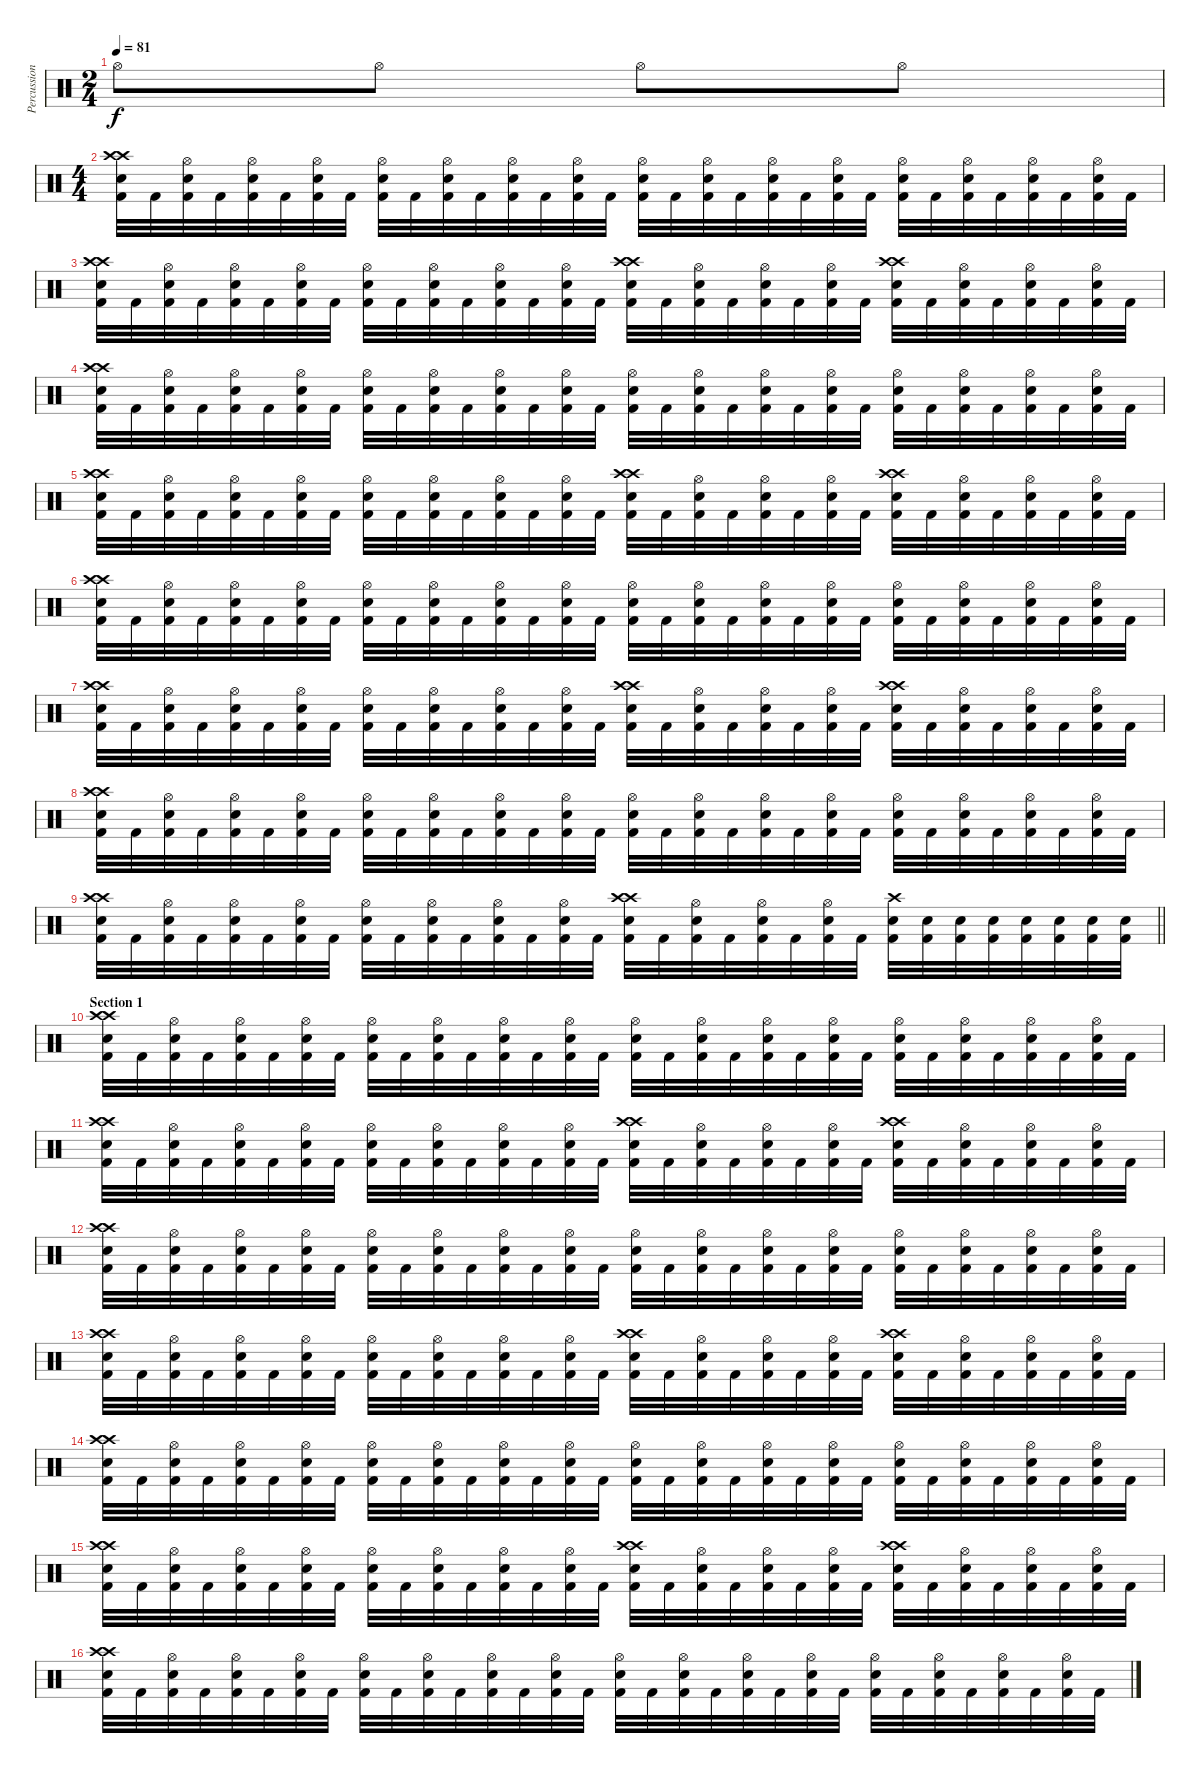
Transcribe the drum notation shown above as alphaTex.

\track ("Percussion" "Percussion") {instrument percussion}
\staff {score}
\articulation defaults
\ts (2 4)
\tempo 81
\clef neutral
\ks c "Hi-Hat (open)".8{dy f} "Hi-Hat (open)".8 "Hi-Hat (open)".8 "Hi-Hat (open)".8
|
\ts (4 4)
("Crash high (hit)" "Kick (hit) 2" "Snare (hit) 2" "Crash high (hit)").32 "Kick (hit) 2".32 ("Hi-Hat (open)" "Kick (hit) 2" "Snare (hit) 2").32 "Kick (hit) 2".32 ("Hi-Hat (open)" "Kick (hit) 2" "Snare (hit) 2").32 "Kick (hit) 2".32 ("Hi-Hat (open)" "Kick (hit) 2" "Snare (hit) 2").32 "Kick (hit) 2".32 ("Hi-Hat (open)" "Kick (hit) 2" "Snare (hit) 2").32 "Kick (hit) 2".32 ("Hi-Hat (open)" "Kick (hit) 2" "Snare (hit) 2").32 "Kick (hit) 2".32 ("Hi-Hat (open)" "Kick (hit) 2" "Snare (hit) 2").32 "Kick (hit) 2".32 ("Hi-Hat (open)" "Kick (hit) 2" "Snare (hit) 2").32 "Kick (hit) 2".32 ("Hi-Hat (open)" "Kick (hit) 2" "Snare (hit) 2").32 "Kick (hit) 2".32 ("Hi-Hat (open)" "Kick (hit) 2" "Snare (hit) 2").32 "Kick (hit) 2".32 ("Hi-Hat (open)" "Kick (hit) 2" "Snare (hit) 2").32 "Kick (hit) 2".32 ("Hi-Hat (open)" "Kick (hit) 2" "Snare (hit) 2").32 "Kick (hit) 2".32 ("Hi-Hat (open)" "Kick (hit) 2" "Snare (hit) 2").32 "Kick (hit) 2".32 ("Hi-Hat (open)" "Kick (hit) 2" "Snare (hit) 2").32 "Kick (hit) 2".32 ("Hi-Hat (open)" "Kick (hit) 2" "Snare (hit) 2").32 "Kick (hit) 2".32 ("Hi-Hat (open)" "Kick (hit) 2" "Snare (hit) 2").32 "Kick (hit) 2".32 |
("Crash high (hit)" "Kick (hit) 2" "Snare (hit) 2" "Crash high (hit)").32 "Kick (hit) 2".32 ("Hi-Hat (open)" "Kick (hit) 2" "Snare (hit) 2").32 "Kick (hit) 2".32 ("Hi-Hat (open)" "Kick (hit) 2" "Snare (hit) 2").32 "Kick (hit) 2".32 ("Hi-Hat (open)" "Kick (hit) 2" "Snare (hit) 2").32 "Kick (hit) 2".32 ("Hi-Hat (open)" "Kick (hit) 2" "Snare (hit) 2").32 "Kick (hit) 2".32 ("Hi-Hat (open)" "Kick (hit) 2" "Snare (hit) 2").32 "Kick (hit) 2".32 ("Hi-Hat (open)" "Kick (hit) 2" "Snare (hit) 2").32 "Kick (hit) 2".32 ("Hi-Hat (open)" "Kick (hit) 2" "Snare (hit) 2").32 "Kick (hit) 2".32 ("Crash high (hit)" "Kick (hit) 2" "Snare (hit) 2" "Crash high (hit)").32 "Kick (hit) 2".32 ("Hi-Hat (open)" "Kick (hit) 2" "Snare (hit) 2").32 "Kick (hit) 2".32 ("Hi-Hat (open)" "Kick (hit) 2" "Snare (hit) 2").32 "Kick (hit) 2".32 ("Hi-Hat (open)" "Kick (hit) 2" "Snare (hit) 2").32 "Kick (hit) 2".32 ("Crash high (hit)" "Kick (hit) 2" "Snare (hit) 2" "Crash high (hit)").32 "Kick (hit) 2".32 ("Hi-Hat (open)" "Kick (hit) 2" "Snare (hit) 2").32 "Kick (hit) 2".32 ("Hi-Hat (open)" "Kick (hit) 2" "Snare (hit) 2").32 "Kick (hit) 2".32 ("Hi-Hat (open)" "Kick (hit) 2" "Snare (hit) 2").32 "Kick (hit) 2".32 |
("Crash high (hit)" "Kick (hit) 2" "Snare (hit) 2" "Crash high (hit)").32 "Kick (hit) 2".32 ("Hi-Hat (open)" "Kick (hit) 2" "Snare (hit) 2").32 "Kick (hit) 2".32 ("Hi-Hat (open)" "Kick (hit) 2" "Snare (hit) 2").32 "Kick (hit) 2".32 ("Hi-Hat (open)" "Kick (hit) 2" "Snare (hit) 2").32 "Kick (hit) 2".32 ("Hi-Hat (open)" "Kick (hit) 2" "Snare (hit) 2").32 "Kick (hit) 2".32 ("Hi-Hat (open)" "Kick (hit) 2" "Snare (hit) 2").32 "Kick (hit) 2".32 ("Hi-Hat (open)" "Kick (hit) 2" "Snare (hit) 2").32 "Kick (hit) 2".32 ("Hi-Hat (open)" "Kick (hit) 2" "Snare (hit) 2").32 "Kick (hit) 2".32 ("Hi-Hat (open)" "Kick (hit) 2" "Snare (hit) 2").32 "Kick (hit) 2".32 ("Hi-Hat (open)" "Kick (hit) 2" "Snare (hit) 2").32 "Kick (hit) 2".32 ("Hi-Hat (open)" "Kick (hit) 2" "Snare (hit) 2").32 "Kick (hit) 2".32 ("Hi-Hat (open)" "Kick (hit) 2" "Snare (hit) 2").32 "Kick (hit) 2".32 ("Hi-Hat (open)" "Kick (hit) 2" "Snare (hit) 2").32 "Kick (hit) 2".32 ("Hi-Hat (open)" "Kick (hit) 2" "Snare (hit) 2").32 "Kick (hit) 2".32 ("Hi-Hat (open)" "Kick (hit) 2" "Snare (hit) 2").32 "Kick (hit) 2".32 ("Hi-Hat (open)" "Kick (hit) 2" "Snare (hit) 2").32 "Kick (hit) 2".32 |
("Crash high (hit)" "Kick (hit) 2" "Snare (hit) 2" "Crash high (hit)").32 "Kick (hit) 2".32 ("Hi-Hat (open)" "Kick (hit) 2" "Snare (hit) 2").32 "Kick (hit) 2".32 ("Hi-Hat (open)" "Kick (hit) 2" "Snare (hit) 2").32 "Kick (hit) 2".32 ("Hi-Hat (open)" "Kick (hit) 2" "Snare (hit) 2").32 "Kick (hit) 2".32 ("Hi-Hat (open)" "Kick (hit) 2" "Snare (hit) 2").32 "Kick (hit) 2".32 ("Hi-Hat (open)" "Kick (hit) 2" "Snare (hit) 2").32 "Kick (hit) 2".32 ("Hi-Hat (open)" "Kick (hit) 2" "Snare (hit) 2").32 "Kick (hit) 2".32 ("Hi-Hat (open)" "Kick (hit) 2" "Snare (hit) 2").32 "Kick (hit) 2".32 ("Crash high (hit)" "Kick (hit) 2" "Snare (hit) 2" "Crash high (hit)").32 "Kick (hit) 2".32 ("Hi-Hat (open)" "Kick (hit) 2" "Snare (hit) 2").32 "Kick (hit) 2".32 ("Hi-Hat (open)" "Kick (hit) 2" "Snare (hit) 2").32 "Kick (hit) 2".32 ("Hi-Hat (open)" "Kick (hit) 2" "Snare (hit) 2").32 "Kick (hit) 2".32 ("Crash high (hit)" "Kick (hit) 2" "Snare (hit) 2" "Crash high (hit)").32 "Kick (hit) 2".32 ("Hi-Hat (open)" "Kick (hit) 2" "Snare (hit) 2").32 "Kick (hit) 2".32 ("Hi-Hat (open)" "Kick (hit) 2" "Snare (hit) 2").32 "Kick (hit) 2".32 ("Hi-Hat (open)" "Kick (hit) 2" "Snare (hit) 2").32 "Kick (hit) 2".32 |
("Crash high (hit)" "Kick (hit) 2" "Snare (hit) 2" "Crash high (hit)").32 "Kick (hit) 2".32 ("Hi-Hat (open)" "Kick (hit) 2" "Snare (hit) 2").32 "Kick (hit) 2".32 ("Hi-Hat (open)" "Kick (hit) 2" "Snare (hit) 2").32 "Kick (hit) 2".32 ("Hi-Hat (open)" "Kick (hit) 2" "Snare (hit) 2").32 "Kick (hit) 2".32 ("Hi-Hat (open)" "Kick (hit) 2" "Snare (hit) 2").32 "Kick (hit) 2".32 ("Hi-Hat (open)" "Kick (hit) 2" "Snare (hit) 2").32 "Kick (hit) 2".32 ("Hi-Hat (open)" "Kick (hit) 2" "Snare (hit) 2").32 "Kick (hit) 2".32 ("Hi-Hat (open)" "Kick (hit) 2" "Snare (hit) 2").32 "Kick (hit) 2".32 ("Hi-Hat (open)" "Kick (hit) 2" "Snare (hit) 2").32 "Kick (hit) 2".32 ("Hi-Hat (open)" "Kick (hit) 2" "Snare (hit) 2").32 "Kick (hit) 2".32 ("Hi-Hat (open)" "Kick (hit) 2" "Snare (hit) 2").32 "Kick (hit) 2".32 ("Hi-Hat (open)" "Kick (hit) 2" "Snare (hit) 2").32 "Kick (hit) 2".32 ("Hi-Hat (open)" "Kick (hit) 2" "Snare (hit) 2").32 "Kick (hit) 2".32 ("Hi-Hat (open)" "Kick (hit) 2" "Snare (hit) 2").32 "Kick (hit) 2".32 ("Hi-Hat (open)" "Kick (hit) 2" "Snare (hit) 2").32 "Kick (hit) 2".32 ("Hi-Hat (open)" "Kick (hit) 2" "Snare (hit) 2").32 "Kick (hit) 2".32 |
("Crash high (hit)" "Kick (hit) 2" "Snare (hit) 2" "Crash high (hit)").32 "Kick (hit) 2".32 ("Hi-Hat (open)" "Kick (hit) 2" "Snare (hit) 2").32 "Kick (hit) 2".32 ("Hi-Hat (open)" "Kick (hit) 2" "Snare (hit) 2").32 "Kick (hit) 2".32 ("Hi-Hat (open)" "Kick (hit) 2" "Snare (hit) 2").32 "Kick (hit) 2".32 ("Hi-Hat (open)" "Kick (hit) 2" "Snare (hit) 2").32 "Kick (hit) 2".32 ("Hi-Hat (open)" "Kick (hit) 2" "Snare (hit) 2").32 "Kick (hit) 2".32 ("Hi-Hat (open)" "Kick (hit) 2" "Snare (hit) 2").32 "Kick (hit) 2".32 ("Hi-Hat (open)" "Kick (hit) 2" "Snare (hit) 2").32 "Kick (hit) 2".32 ("Crash high (hit)" "Kick (hit) 2" "Snare (hit) 2" "Crash high (hit)").32 "Kick (hit) 2".32 ("Hi-Hat (open)" "Kick (hit) 2" "Snare (hit) 2").32 "Kick (hit) 2".32 ("Hi-Hat (open)" "Kick (hit) 2" "Snare (hit) 2").32 "Kick (hit) 2".32 ("Hi-Hat (open)" "Kick (hit) 2" "Snare (hit) 2").32 "Kick (hit) 2".32 ("Crash high (hit)" "Kick (hit) 2" "Snare (hit) 2" "Crash high (hit)").32 "Kick (hit) 2".32 ("Hi-Hat (open)" "Kick (hit) 2" "Snare (hit) 2").32 "Kick (hit) 2".32 ("Hi-Hat (open)" "Kick (hit) 2" "Snare (hit) 2").32 "Kick (hit) 2".32 ("Hi-Hat (open)" "Kick (hit) 2" "Snare (hit) 2").32 "Kick (hit) 2".32 |
("Crash high (hit)" "Kick (hit) 2" "Snare (hit) 2" "Crash high (hit)").32 "Kick (hit) 2".32 ("Hi-Hat (open)" "Kick (hit) 2" "Snare (hit) 2").32 "Kick (hit) 2".32 ("Hi-Hat (open)" "Kick (hit) 2" "Snare (hit) 2").32 "Kick (hit) 2".32 ("Hi-Hat (open)" "Kick (hit) 2" "Snare (hit) 2").32 "Kick (hit) 2".32 ("Hi-Hat (open)" "Kick (hit) 2" "Snare (hit) 2").32 "Kick (hit) 2".32 ("Hi-Hat (open)" "Kick (hit) 2" "Snare (hit) 2").32 "Kick (hit) 2".32 ("Hi-Hat (open)" "Kick (hit) 2" "Snare (hit) 2").32 "Kick (hit) 2".32 ("Hi-Hat (open)" "Kick (hit) 2" "Snare (hit) 2").32 "Kick (hit) 2".32 ("Hi-Hat (open)" "Kick (hit) 2" "Snare (hit) 2").32 "Kick (hit) 2".32 ("Hi-Hat (open)" "Kick (hit) 2" "Snare (hit) 2").32 "Kick (hit) 2".32 ("Hi-Hat (open)" "Kick (hit) 2" "Snare (hit) 2").32 "Kick (hit) 2".32 ("Hi-Hat (open)" "Kick (hit) 2" "Snare (hit) 2").32 "Kick (hit) 2".32 ("Hi-Hat (open)" "Kick (hit) 2" "Snare (hit) 2").32 "Kick (hit) 2".32 ("Hi-Hat (open)" "Kick (hit) 2" "Snare (hit) 2").32 "Kick (hit) 2".32 ("Hi-Hat (open)" "Kick (hit) 2" "Snare (hit) 2").32 "Kick (hit) 2".32 ("Hi-Hat (open)" "Kick (hit) 2" "Snare (hit) 2").32 "Kick (hit) 2".32 |
\barLineRight lightlight
("Crash high (hit)" "Kick (hit) 2" "Snare (hit) 2" "Crash high (hit)").32 "Kick (hit) 2".32 ("Hi-Hat (open)" "Kick (hit) 2" "Snare (hit) 2").32 "Kick (hit) 2".32 ("Hi-Hat (open)" "Kick (hit) 2" "Snare (hit) 2").32 "Kick (hit) 2".32 ("Hi-Hat (open)" "Kick (hit) 2" "Snare (hit) 2").32 "Kick (hit) 2".32 ("Hi-Hat (open)" "Kick (hit) 2" "Snare (hit) 2").32 "Kick (hit) 2".32 ("Hi-Hat (open)" "Kick (hit) 2" "Snare (hit) 2").32 "Kick (hit) 2".32 ("Hi-Hat (open)" "Kick (hit) 2" "Snare (hit) 2").32 "Kick (hit) 2".32 ("Hi-Hat (open)" "Kick (hit) 2" "Snare (hit) 2").32 "Kick (hit) 2".32 ("Crash high (hit)" "Kick (hit) 2" "Snare (hit) 2" "Crash high (hit)").32 "Kick (hit) 2".32 ("Hi-Hat (open)" "Kick (hit) 2" "Snare (hit) 2").32 "Kick (hit) 2".32 ("Hi-Hat (open)" "Kick (hit) 2" "Snare (hit) 2").32 "Kick (hit) 2".32 ("Hi-Hat (open)" "Kick (hit) 2" "Snare (hit) 2").32 "Kick (hit) 2".32 ("Kick (hit) 2" "Snare (hit) 2" "Crash high (hit)").32 ("Kick (hit) 2" "Snare (hit) 2").32 ("Kick (hit) 2" "Snare (hit) 2").32 ("Kick (hit) 2" "Snare (hit) 2").32 ("Kick (hit) 2" "Snare (hit) 2").32 ("Kick (hit) 2" "Snare (hit) 2").32 ("Kick (hit) 2" "Snare (hit) 2").32 ("Kick (hit) 2" "Snare (hit) 2").32 |
\section ("" "Section 1")
("Crash high (hit)" "Kick (hit) 2" "Snare (hit) 2" "Crash high (hit)").32 "Kick (hit) 2".32 ("Hi-Hat (open)" "Kick (hit) 2" "Snare (hit) 2").32 "Kick (hit) 2".32 ("Hi-Hat (open)" "Kick (hit) 2" "Snare (hit) 2").32 "Kick (hit) 2".32 ("Hi-Hat (open)" "Kick (hit) 2" "Snare (hit) 2").32 "Kick (hit) 2".32 ("Hi-Hat (open)" "Kick (hit) 2" "Snare (hit) 2").32 "Kick (hit) 2".32 ("Hi-Hat (open)" "Kick (hit) 2" "Snare (hit) 2").32 "Kick (hit) 2".32 ("Hi-Hat (open)" "Kick (hit) 2" "Snare (hit) 2").32 "Kick (hit) 2".32 ("Hi-Hat (open)" "Kick (hit) 2" "Snare (hit) 2").32 "Kick (hit) 2".32 ("Hi-Hat (open)" "Kick (hit) 2" "Snare (hit) 2").32 "Kick (hit) 2".32 ("Hi-Hat (open)" "Kick (hit) 2" "Snare (hit) 2").32 "Kick (hit) 2".32 ("Hi-Hat (open)" "Kick (hit) 2" "Snare (hit) 2").32 "Kick (hit) 2".32 ("Hi-Hat (open)" "Kick (hit) 2" "Snare (hit) 2").32 "Kick (hit) 2".32 ("Hi-Hat (open)" "Kick (hit) 2" "Snare (hit) 2").32 "Kick (hit) 2".32 ("Hi-Hat (open)" "Kick (hit) 2" "Snare (hit) 2").32 "Kick (hit) 2".32 ("Hi-Hat (open)" "Kick (hit) 2" "Snare (hit) 2").32 "Kick (hit) 2".32 ("Hi-Hat (open)" "Kick (hit) 2" "Snare (hit) 2").32 "Kick (hit) 2".32 |
("Crash high (hit)" "Kick (hit) 2" "Snare (hit) 2" "Crash high (hit)").32 "Kick (hit) 2".32 ("Hi-Hat (open)" "Kick (hit) 2" "Snare (hit) 2").32 "Kick (hit) 2".32 ("Hi-Hat (open)" "Kick (hit) 2" "Snare (hit) 2").32 "Kick (hit) 2".32 ("Hi-Hat (open)" "Kick (hit) 2" "Snare (hit) 2").32 "Kick (hit) 2".32 ("Hi-Hat (open)" "Kick (hit) 2" "Snare (hit) 2").32 "Kick (hit) 2".32 ("Hi-Hat (open)" "Kick (hit) 2" "Snare (hit) 2").32 "Kick (hit) 2".32 ("Hi-Hat (open)" "Kick (hit) 2" "Snare (hit) 2").32 "Kick (hit) 2".32 ("Hi-Hat (open)" "Kick (hit) 2" "Snare (hit) 2").32 "Kick (hit) 2".32 ("Crash high (hit)" "Kick (hit) 2" "Snare (hit) 2" "Crash high (hit)").32 "Kick (hit) 2".32 ("Hi-Hat (open)" "Kick (hit) 2" "Snare (hit) 2").32 "Kick (hit) 2".32 ("Hi-Hat (open)" "Kick (hit) 2" "Snare (hit) 2").32 "Kick (hit) 2".32 ("Hi-Hat (open)" "Kick (hit) 2" "Snare (hit) 2").32 "Kick (hit) 2".32 ("Crash high (hit)" "Kick (hit) 2" "Snare (hit) 2" "Crash high (hit)").32 "Kick (hit) 2".32 ("Hi-Hat (open)" "Kick (hit) 2" "Snare (hit) 2").32 "Kick (hit) 2".32 ("Hi-Hat (open)" "Kick (hit) 2" "Snare (hit) 2").32 "Kick (hit) 2".32 ("Hi-Hat (open)" "Kick (hit) 2" "Snare (hit) 2").32 "Kick (hit) 2".32 |
("Crash high (hit)" "Kick (hit) 2" "Snare (hit) 2" "Crash high (hit)").32 "Kick (hit) 2".32 ("Hi-Hat (open)" "Kick (hit) 2" "Snare (hit) 2").32 "Kick (hit) 2".32 ("Hi-Hat (open)" "Kick (hit) 2" "Snare (hit) 2").32 "Kick (hit) 2".32 ("Hi-Hat (open)" "Kick (hit) 2" "Snare (hit) 2").32 "Kick (hit) 2".32 ("Hi-Hat (open)" "Kick (hit) 2" "Snare (hit) 2").32 "Kick (hit) 2".32 ("Hi-Hat (open)" "Kick (hit) 2" "Snare (hit) 2").32 "Kick (hit) 2".32 ("Hi-Hat (open)" "Kick (hit) 2" "Snare (hit) 2").32 "Kick (hit) 2".32 ("Hi-Hat (open)" "Kick (hit) 2" "Snare (hit) 2").32 "Kick (hit) 2".32 ("Hi-Hat (open)" "Kick (hit) 2" "Snare (hit) 2").32 "Kick (hit) 2".32 ("Hi-Hat (open)" "Kick (hit) 2" "Snare (hit) 2").32 "Kick (hit) 2".32 ("Hi-Hat (open)" "Kick (hit) 2" "Snare (hit) 2").32 "Kick (hit) 2".32 ("Hi-Hat (open)" "Kick (hit) 2" "Snare (hit) 2").32 "Kick (hit) 2".32 ("Hi-Hat (open)" "Kick (hit) 2" "Snare (hit) 2").32 "Kick (hit) 2".32 ("Hi-Hat (open)" "Kick (hit) 2" "Snare (hit) 2").32 "Kick (hit) 2".32 ("Hi-Hat (open)" "Kick (hit) 2" "Snare (hit) 2").32 "Kick (hit) 2".32 ("Hi-Hat (open)" "Kick (hit) 2" "Snare (hit) 2").32 "Kick (hit) 2".32 |
("Crash high (hit)" "Kick (hit) 2" "Snare (hit) 2" "Crash high (hit)").32 "Kick (hit) 2".32 ("Hi-Hat (open)" "Kick (hit) 2" "Snare (hit) 2").32 "Kick (hit) 2".32 ("Hi-Hat (open)" "Kick (hit) 2" "Snare (hit) 2").32 "Kick (hit) 2".32 ("Hi-Hat (open)" "Kick (hit) 2" "Snare (hit) 2").32 "Kick (hit) 2".32 ("Hi-Hat (open)" "Kick (hit) 2" "Snare (hit) 2").32 "Kick (hit) 2".32 ("Hi-Hat (open)" "Kick (hit) 2" "Snare (hit) 2").32 "Kick (hit) 2".32 ("Hi-Hat (open)" "Kick (hit) 2" "Snare (hit) 2").32 "Kick (hit) 2".32 ("Hi-Hat (open)" "Kick (hit) 2" "Snare (hit) 2").32 "Kick (hit) 2".32 ("Crash high (hit)" "Kick (hit) 2" "Snare (hit) 2" "Crash high (hit)").32 "Kick (hit) 2".32 ("Hi-Hat (open)" "Kick (hit) 2" "Snare (hit) 2").32 "Kick (hit) 2".32 ("Hi-Hat (open)" "Kick (hit) 2" "Snare (hit) 2").32 "Kick (hit) 2".32 ("Hi-Hat (open)" "Kick (hit) 2" "Snare (hit) 2").32 "Kick (hit) 2".32 ("Crash high (hit)" "Kick (hit) 2" "Snare (hit) 2" "Crash high (hit)").32 "Kick (hit) 2".32 ("Hi-Hat (open)" "Kick (hit) 2" "Snare (hit) 2").32 "Kick (hit) 2".32 ("Hi-Hat (open)" "Kick (hit) 2" "Snare (hit) 2").32 "Kick (hit) 2".32 ("Hi-Hat (open)" "Kick (hit) 2" "Snare (hit) 2").32 "Kick (hit) 2".32 |
("Crash high (hit)" "Kick (hit) 2" "Snare (hit) 2" "Crash high (hit)").32 "Kick (hit) 2".32 ("Hi-Hat (open)" "Kick (hit) 2" "Snare (hit) 2").32 "Kick (hit) 2".32 ("Hi-Hat (open)" "Kick (hit) 2" "Snare (hit) 2").32 "Kick (hit) 2".32 ("Hi-Hat (open)" "Kick (hit) 2" "Snare (hit) 2").32 "Kick (hit) 2".32 ("Hi-Hat (open)" "Kick (hit) 2" "Snare (hit) 2").32 "Kick (hit) 2".32 ("Hi-Hat (open)" "Kick (hit) 2" "Snare (hit) 2").32 "Kick (hit) 2".32 ("Hi-Hat (open)" "Kick (hit) 2" "Snare (hit) 2").32 "Kick (hit) 2".32 ("Hi-Hat (open)" "Kick (hit) 2" "Snare (hit) 2").32 "Kick (hit) 2".32 ("Hi-Hat (open)" "Kick (hit) 2" "Snare (hit) 2").32 "Kick (hit) 2".32 ("Hi-Hat (open)" "Kick (hit) 2" "Snare (hit) 2").32 "Kick (hit) 2".32 ("Hi-Hat (open)" "Kick (hit) 2" "Snare (hit) 2").32 "Kick (hit) 2".32 ("Hi-Hat (open)" "Kick (hit) 2" "Snare (hit) 2").32 "Kick (hit) 2".32 ("Hi-Hat (open)" "Kick (hit) 2" "Snare (hit) 2").32 "Kick (hit) 2".32 ("Hi-Hat (open)" "Kick (hit) 2" "Snare (hit) 2").32 "Kick (hit) 2".32 ("Hi-Hat (open)" "Kick (hit) 2" "Snare (hit) 2").32 "Kick (hit) 2".32 ("Hi-Hat (open)" "Kick (hit) 2" "Snare (hit) 2").32 "Kick (hit) 2".32 |
("Crash high (hit)" "Kick (hit) 2" "Snare (hit) 2" "Crash high (hit)").32 "Kick (hit) 2".32 ("Hi-Hat (open)" "Kick (hit) 2" "Snare (hit) 2").32 "Kick (hit) 2".32 ("Hi-Hat (open)" "Kick (hit) 2" "Snare (hit) 2").32 "Kick (hit) 2".32 ("Hi-Hat (open)" "Kick (hit) 2" "Snare (hit) 2").32 "Kick (hit) 2".32 ("Hi-Hat (open)" "Kick (hit) 2" "Snare (hit) 2").32 "Kick (hit) 2".32 ("Hi-Hat (open)" "Kick (hit) 2" "Snare (hit) 2").32 "Kick (hit) 2".32 ("Hi-Hat (open)" "Kick (hit) 2" "Snare (hit) 2").32 "Kick (hit) 2".32 ("Hi-Hat (open)" "Kick (hit) 2" "Snare (hit) 2").32 "Kick (hit) 2".32 ("Crash high (hit)" "Kick (hit) 2" "Snare (hit) 2" "Crash high (hit)").32 "Kick (hit) 2".32 ("Hi-Hat (open)" "Kick (hit) 2" "Snare (hit) 2").32 "Kick (hit) 2".32 ("Hi-Hat (open)" "Kick (hit) 2" "Snare (hit) 2").32 "Kick (hit) 2".32 ("Hi-Hat (open)" "Kick (hit) 2" "Snare (hit) 2").32 "Kick (hit) 2".32 ("Crash high (hit)" "Kick (hit) 2" "Snare (hit) 2" "Crash high (hit)").32 "Kick (hit) 2".32 ("Hi-Hat (open)" "Kick (hit) 2" "Snare (hit) 2").32 "Kick (hit) 2".32 ("Hi-Hat (open)" "Kick (hit) 2" "Snare (hit) 2").32 "Kick (hit) 2".32 ("Hi-Hat (open)" "Kick (hit) 2" "Snare (hit) 2").32 "Kick (hit) 2".32 |
("Crash high (hit)" "Kick (hit) 2" "Snare (hit) 2" "Crash high (hit)").32 "Kick (hit) 2".32 ("Hi-Hat (open)" "Kick (hit) 2" "Snare (hit) 2").32 "Kick (hit) 2".32 ("Hi-Hat (open)" "Kick (hit) 2" "Snare (hit) 2").32 "Kick (hit) 2".32 ("Hi-Hat (open)" "Kick (hit) 2" "Snare (hit) 2").32 "Kick (hit) 2".32 ("Hi-Hat (open)" "Kick (hit) 2" "Snare (hit) 2").32 "Kick (hit) 2".32 ("Hi-Hat (open)" "Kick (hit) 2" "Snare (hit) 2").32 "Kick (hit) 2".32 ("Hi-Hat (open)" "Kick (hit) 2" "Snare (hit) 2").32 "Kick (hit) 2".32 ("Hi-Hat (open)" "Kick (hit) 2" "Snare (hit) 2").32 "Kick (hit) 2".32 ("Hi-Hat (open)" "Kick (hit) 2" "Snare (hit) 2").32 "Kick (hit) 2".32 ("Hi-Hat (open)" "Kick (hit) 2" "Snare (hit) 2").32 "Kick (hit) 2".32 ("Hi-Hat (open)" "Kick (hit) 2" "Snare (hit) 2").32 "Kick (hit) 2".32 ("Hi-Hat (open)" "Kick (hit) 2" "Snare (hit) 2").32 "Kick (hit) 2".32 ("Hi-Hat (open)" "Kick (hit) 2" "Snare (hit) 2").32 "Kick (hit) 2".32 ("Hi-Hat (open)" "Kick (hit) 2" "Snare (hit) 2").32 "Kick (hit) 2".32 ("Hi-Hat (open)" "Kick (hit) 2" "Snare (hit) 2").32 "Kick (hit) 2".32 ("Hi-Hat (open)" "Kick (hit) 2" "Snare (hit) 2").32 "Kick (hit) 2".32
